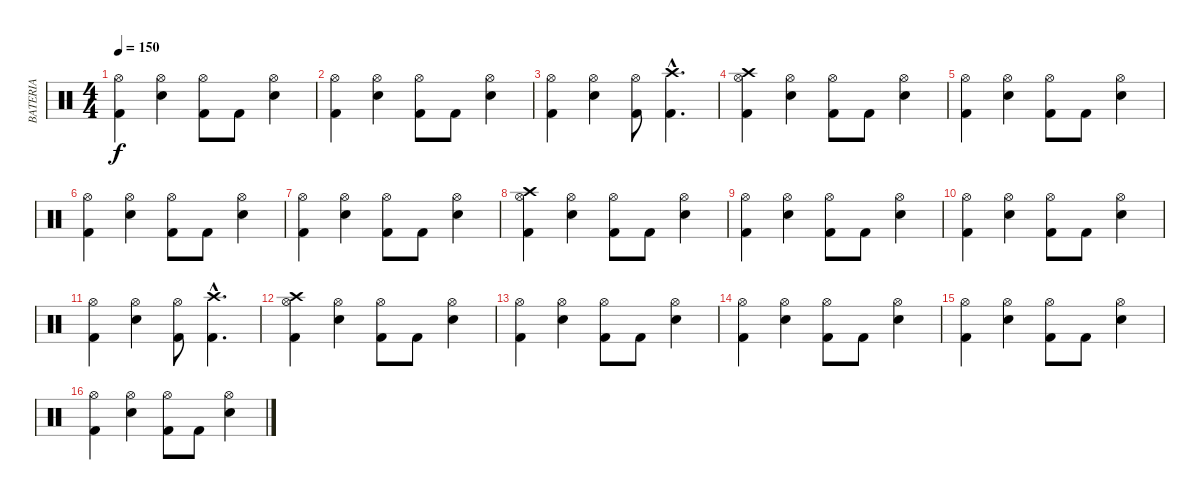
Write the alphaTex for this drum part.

\track ("BATERIA" "BATERIA") {instrument percussion}
\staff {score}
\articulation defaults
\ts (4 4)
\tempo 150
\clef neutral
\ks c
("Hi-Hat (open)" "Kick (hit) 2").4{dy f} ("Hi-Hat (open)" "Snare (hit) 2").4 ("Hi-Hat (open)" "Kick (hit) 2").8 "Kick (hit) 2".8 ("Hi-Hat (open)" "Snare (hit) 2").4 |
("Hi-Hat (open)" "Kick (hit) 2").4 ("Hi-Hat (open)" "Snare (hit) 2").4 ("Hi-Hat (open)" "Kick (hit) 2").8 "Kick (hit) 2".8 ("Hi-Hat (open)" "Snare (hit) 2").4 |
("Hi-Hat (open)" "Kick (hit) 2").4 ("Hi-Hat (open)" "Snare (hit) 2").4 ("Hi-Hat (open)" "Kick (hit) 2").8 ("Crash high (hit)"{hac} "Kick (hit) 2"{hac}).4{d} |
("Crash high (hit)" "Hi-Hat (open)" "Kick (hit) 2").4 ("Hi-Hat (open)" "Snare (hit) 2").4 ("Hi-Hat (open)" "Kick (hit) 2").8 "Kick (hit) 2".8 ("Hi-Hat (open)" "Snare (hit) 2").4 |
("Hi-Hat (open)" "Kick (hit) 2").4 ("Hi-Hat (open)" "Snare (hit) 2").4 ("Hi-Hat (open)" "Kick (hit) 2").8 "Kick (hit) 2".8 ("Hi-Hat (open)" "Snare (hit) 2").4 |
("Hi-Hat (open)" "Kick (hit) 2").4 ("Hi-Hat (open)" "Snare (hit) 2").4 ("Hi-Hat (open)" "Kick (hit) 2").8 "Kick (hit) 2".8 ("Hi-Hat (open)" "Snare (hit) 2").4 |
("Hi-Hat (open)" "Kick (hit) 2").4 ("Hi-Hat (open)" "Snare (hit) 2").4 ("Hi-Hat (open)" "Kick (hit) 2").8 "Kick (hit) 2".8 ("Hi-Hat (open)" "Snare (hit) 2").4 |
("Crash high (hit)" "Hi-Hat (open)" "Kick (hit) 2").4 ("Hi-Hat (open)" "Snare (hit) 2").4 ("Hi-Hat (open)" "Kick (hit) 2").8 "Kick (hit) 2".8 ("Hi-Hat (open)" "Snare (hit) 2").4 |
("Hi-Hat (open)" "Kick (hit) 2").4 ("Hi-Hat (open)" "Snare (hit) 2").4 ("Hi-Hat (open)" "Kick (hit) 2").8 "Kick (hit) 2".8 ("Hi-Hat (open)" "Snare (hit) 2").4 |
("Hi-Hat (open)" "Kick (hit) 2").4 ("Hi-Hat (open)" "Snare (hit) 2").4 ("Hi-Hat (open)" "Kick (hit) 2").8 "Kick (hit) 2".8 ("Hi-Hat (open)" "Snare (hit) 2").4 |
("Hi-Hat (open)" "Kick (hit) 2").4 ("Hi-Hat (open)" "Snare (hit) 2").4 ("Hi-Hat (open)" "Kick (hit) 2").8 ("Crash high (hit)"{hac} "Kick (hit) 2"{hac}).4{d} |
("Crash high (hit)" "Hi-Hat (open)" "Kick (hit) 2").4 ("Hi-Hat (open)" "Snare (hit) 2").4 ("Hi-Hat (open)" "Kick (hit) 2").8 "Kick (hit) 2".8 ("Hi-Hat (open)" "Snare (hit) 2").4 |
("Hi-Hat (open)" "Kick (hit) 2").4 ("Hi-Hat (open)" "Snare (hit) 2").4 ("Hi-Hat (open)" "Kick (hit) 2").8 "Kick (hit) 2".8 ("Hi-Hat (open)" "Snare (hit) 2").4 |
("Hi-Hat (open)" "Kick (hit) 2").4 ("Hi-Hat (open)" "Snare (hit) 2").4 ("Hi-Hat (open)" "Kick (hit) 2").8 "Kick (hit) 2".8 ("Hi-Hat (open)" "Snare (hit) 2").4 |
("Hi-Hat (open)" "Kick (hit) 2").4 ("Hi-Hat (open)" "Snare (hit) 2").4 ("Hi-Hat (open)" "Kick (hit) 2").8 "Kick (hit) 2".8 ("Hi-Hat (open)" "Snare (hit) 2").4 |
("Hi-Hat (open)" "Kick (hit) 2").4 ("Hi-Hat (open)" "Snare (hit) 2").4 ("Hi-Hat (open)" "Kick (hit) 2").8 "Kick (hit) 2".8 ("Hi-Hat (open)" "Snare (hit) 2").4
